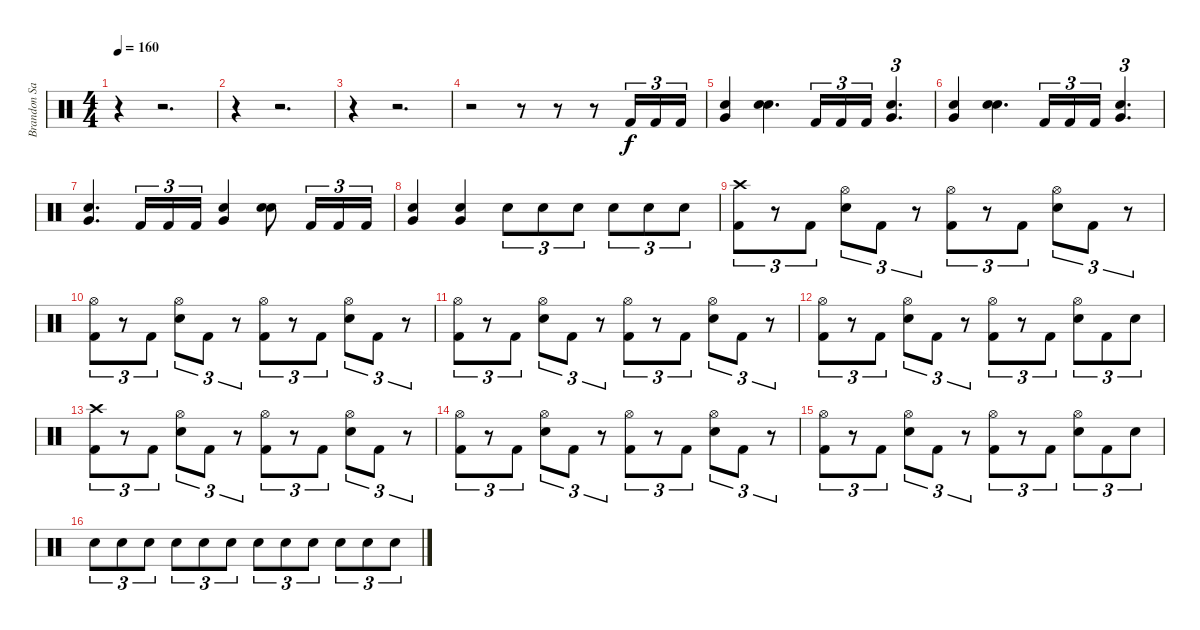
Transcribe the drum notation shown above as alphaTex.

\track ("Brandon Saller" "Brandon Sa") {instrument percussion}
\staff {score}
\articulation defaults
\ts (4 4)
\tempo 160
\clef neutral
\ks c
r.4{dy f} r.2{d} |
r.4 r.2{d} |
r.4 r.2{d} |
r.2 r.8 r.8 r.8 "Kick (hit) 2".16{tu (3 2)} "Kick (hit) 2".16{tu (3 2)} "Kick (hit) 2".16{tu (3 2)} |
("Very Low Tom (hit)" "Snare (hit) 2").4 ("Snare (hit)" "Snare (hit)").4{d} "Kick (hit) 2".16{tu (3 2)} "Kick (hit) 2".16{tu (3 2)} "Kick (hit) 2".16{tu (3 2)} ("Very Low Tom (hit)" "Snare (hit) 2").4{d tu (3 2)} |
("Very Low Tom (hit)" "Snare (hit) 2").4 ("Snare (hit)" "Snare (hit)").4{d} "Kick (hit) 2".16{tu (3 2)} "Kick (hit) 2".16{tu (3 2)} "Kick (hit) 2".16{tu (3 2)} ("Very Low Tom (hit)" "Snare (hit) 2").4{d tu (3 2)} |
("Very Low Tom (hit)" "Snare (hit) 2").4{d} "Kick (hit) 2".16{tu (3 2)} "Kick (hit) 2".16{tu (3 2)} "Kick (hit) 2".16{tu (3 2)} ("Very Low Tom (hit)" "Snare (hit) 2").4 ("Snare (hit)" "Snare (hit)").8 "Kick (hit) 2".16{tu (3 2)} "Kick (hit) 2".16{tu (3 2)} "Kick (hit) 2".16{tu (3 2)} |
("Very Low Tom (hit)" "Snare (hit) 2").4 ("Very Low Tom (hit)" "Snare (hit) 2").4 "Snare (hit) 2".8{tu (3 2)} "Snare (hit) 2".8{tu (3 2)} "Snare (hit) 2".8{tu (3 2)} "Snare (hit) 2".8{tu (3 2)} "Snare (hit) 2".8{tu (3 2)} "Snare (hit) 2".8{tu (3 2)} |
("Crash high (hit)" "Kick (hit) 2").8{tu (3 2)} r.8{tu (3 2)} "Kick (hit) 2".8{tu (3 2)} ("Hi-Hat (open)" "Snare (hit) 2").8{tu (3 2)} "Kick (hit) 2".8{tu (3 2)} r.8{tu (3 2)} ("Hi-Hat (open)" "Kick (hit) 2").8{tu (3 2)} r.8{tu (3 2)} "Kick (hit) 2".8{tu (3 2)} ("Hi-Hat (open)" "Snare (hit) 2").8{tu (3 2)} "Kick (hit) 2".8{tu (3 2)} r.8{tu (3 2)} |
("Hi-Hat (open)" "Kick (hit) 2").8{tu (3 2)} r.8{tu (3 2)} "Kick (hit) 2".8{tu (3 2)} ("Hi-Hat (open)" "Snare (hit) 2").8{tu (3 2)} "Kick (hit) 2".8{tu (3 2)} r.8{tu (3 2)} ("Hi-Hat (open)" "Kick (hit) 2").8{tu (3 2)} r.8{tu (3 2)} "Kick (hit) 2".8{tu (3 2)} ("Hi-Hat (open)" "Snare (hit) 2").8{tu (3 2)} "Kick (hit) 2".8{tu (3 2)} r.8{tu (3 2)} |
("Hi-Hat (open)" "Kick (hit) 2").8{tu (3 2)} r.8{tu (3 2)} "Kick (hit) 2".8{tu (3 2)} ("Hi-Hat (open)" "Snare (hit) 2").8{tu (3 2)} "Kick (hit) 2".8{tu (3 2)} r.8{tu (3 2)} ("Hi-Hat (open)" "Kick (hit) 2").8{tu (3 2)} r.8{tu (3 2)} "Kick (hit) 2".8{tu (3 2)} ("Hi-Hat (open)" "Snare (hit) 2").8{tu (3 2)} "Kick (hit) 2".8{tu (3 2)} r.8{tu (3 2)} |
("Hi-Hat (open)" "Kick (hit) 2").8{tu (3 2)} r.8{tu (3 2)} "Kick (hit) 2".8{tu (3 2)} ("Hi-Hat (open)" "Snare (hit) 2").8{tu (3 2)} "Kick (hit) 2".8{tu (3 2)} r.8{tu (3 2)} ("Hi-Hat (open)" "Kick (hit) 2").8{tu (3 2)} r.8{tu (3 2)} "Kick (hit) 2".8{tu (3 2)} ("Hi-Hat (open)" "Snare (hit) 2").8{tu (3 2)} "Kick (hit) 2".8{tu (3 2)} "Snare (hit) 2".8{tu (3 2)} |
("Crash high (hit)" "Kick (hit) 2").8{tu (3 2)} r.8{tu (3 2)} "Kick (hit) 2".8{tu (3 2)} ("Hi-Hat (open)" "Snare (hit) 2").8{tu (3 2)} "Kick (hit) 2".8{tu (3 2)} r.8{tu (3 2)} ("Hi-Hat (open)" "Kick (hit) 2").8{tu (3 2)} r.8{tu (3 2)} "Kick (hit) 2".8{tu (3 2)} ("Hi-Hat (open)" "Snare (hit) 2").8{tu (3 2)} "Kick (hit) 2".8{tu (3 2)} r.8{tu (3 2)} |
("Hi-Hat (open)" "Kick (hit) 2").8{tu (3 2)} r.8{tu (3 2)} "Kick (hit) 2".8{tu (3 2)} ("Hi-Hat (open)" "Snare (hit) 2").8{tu (3 2)} "Kick (hit) 2".8{tu (3 2)} r.8{tu (3 2)} ("Hi-Hat (open)" "Kick (hit) 2").8{tu (3 2)} r.8{tu (3 2)} "Kick (hit) 2".8{tu (3 2)} ("Hi-Hat (open)" "Snare (hit) 2").8{tu (3 2)} "Kick (hit) 2".8{tu (3 2)} r.8{tu (3 2)} |
("Hi-Hat (open)" "Kick (hit) 2").8{tu (3 2)} r.8{tu (3 2)} "Kick (hit) 2".8{tu (3 2)} ("Hi-Hat (open)" "Snare (hit) 2").8{tu (3 2)} "Kick (hit) 2".8{tu (3 2)} r.8{tu (3 2)} ("Hi-Hat (open)" "Kick (hit) 2").8{tu (3 2)} r.8{tu (3 2)} "Kick (hit) 2".8{tu (3 2)} ("Hi-Hat (open)" "Snare (hit) 2").8{tu (3 2)} "Kick (hit) 2".8{tu (3 2)} "Snare (hit) 2".8{tu (3 2)} |
"Snare (hit) 2".8{tu (3 2)} "Snare (hit) 2".8{tu (3 2)} "Snare (hit) 2".8{tu (3 2)} "Snare (hit) 2".8{tu (3 2)} "Snare (hit) 2".8{tu (3 2)} "Snare (hit) 2".8{tu (3 2)} "Snare (hit) 2".8{tu (3 2)} "Snare (hit) 2".8{tu (3 2)} "Snare (hit) 2".8{tu (3 2)} "Snare (hit) 2".8{tu (3 2)} "Snare (hit) 2".8{tu (3 2)} "Snare (hit) 2".8{tu (3 2)}
